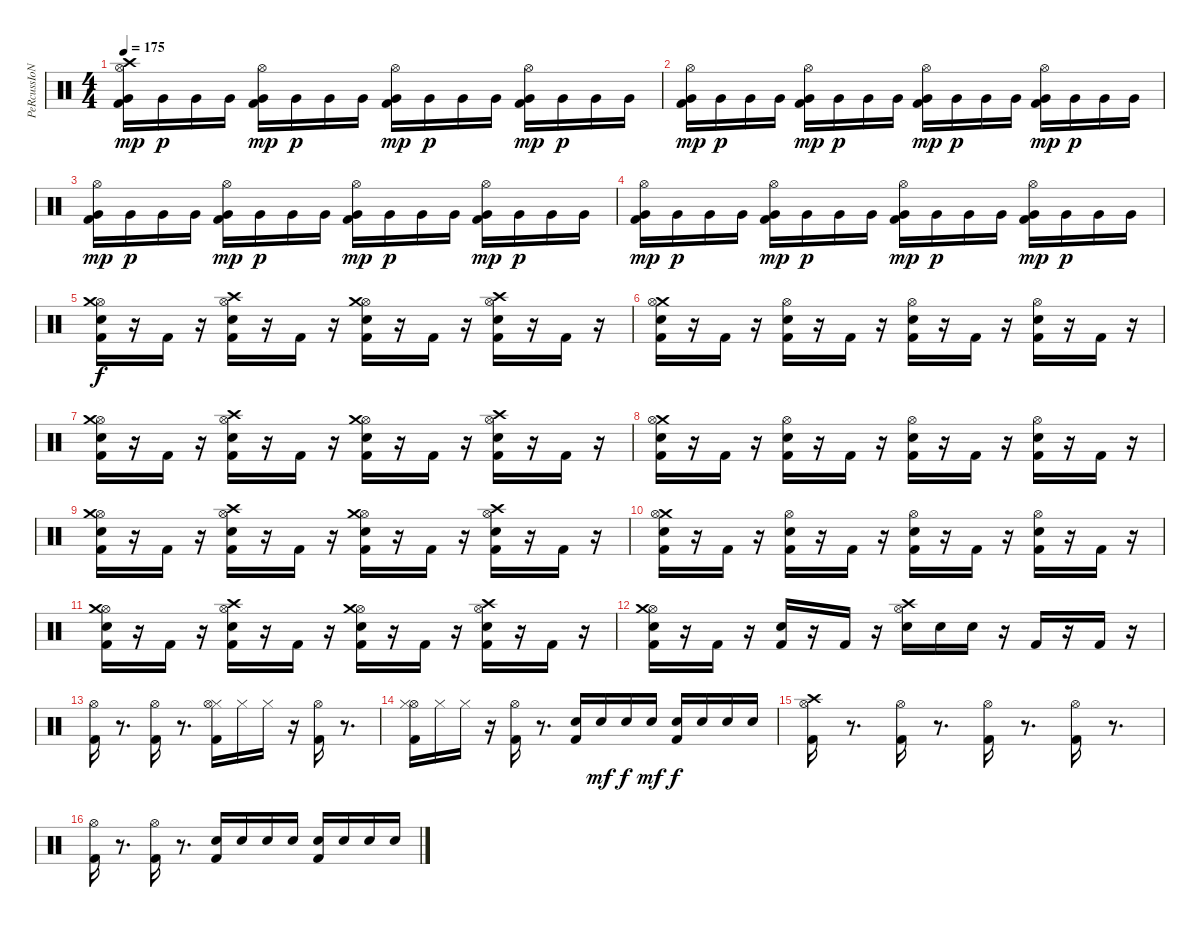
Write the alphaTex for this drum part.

\track ("PeRcussIoNs" "PeRcussIoN") {instrument percussion}
\staff {score}
\articulation defaults
\ts (4 4)
\tempo 175
\clef neutral
\ks c
("Hi-Hat (open)" "Crash high (hit)" "Very Low Tom (hit)" "Kick (hit) 2").16{dy mp} "Very Low Tom (hit)".16{dy p} "Very Low Tom (hit)".16 "Very Low Tom (hit)".16 ("Hi-Hat (open)" "Very Low Tom (hit)" "Kick (hit) 2").16{dy mp} "Very Low Tom (hit)".16{dy p} "Very Low Tom (hit)".16 "Very Low Tom (hit)".16 ("Hi-Hat (open)" "Very Low Tom (hit)" "Kick (hit) 2").16{dy mp} "Very Low Tom (hit)".16{dy p} "Very Low Tom (hit)".16 "Very Low Tom (hit)".16 ("Hi-Hat (open)" "Very Low Tom (hit)" "Kick (hit) 2").16{dy mp} "Very Low Tom (hit)".16{dy p} "Very Low Tom (hit)".16 "Very Low Tom (hit)".16 |
("Hi-Hat (open)" "Very Low Tom (hit)" "Kick (hit) 2").16{dy mp} "Very Low Tom (hit)".16{dy p} "Very Low Tom (hit)".16 "Very Low Tom (hit)".16 ("Hi-Hat (open)" "Very Low Tom (hit)" "Kick (hit) 2").16{dy mp} "Very Low Tom (hit)".16{dy p} "Very Low Tom (hit)".16 "Very Low Tom (hit)".16 ("Hi-Hat (open)" "Very Low Tom (hit)" "Kick (hit) 2").16{dy mp} "Very Low Tom (hit)".16{dy p} "Very Low Tom (hit)".16 "Very Low Tom (hit)".16 ("Hi-Hat (open)" "Very Low Tom (hit)" "Kick (hit) 2").16{dy mp} "Very Low Tom (hit)".16{dy p} "Very Low Tom (hit)".16 "Very Low Tom (hit)".16 |
("Hi-Hat (open)" "Very Low Tom (hit)" "Kick (hit) 2").16{dy mp} "Very Low Tom (hit)".16{dy p} "Very Low Tom (hit)".16 "Very Low Tom (hit)".16 ("Hi-Hat (open)" "Very Low Tom (hit)" "Kick (hit) 2").16{dy mp} "Very Low Tom (hit)".16{dy p} "Very Low Tom (hit)".16 "Very Low Tom (hit)".16 ("Hi-Hat (open)" "Very Low Tom (hit)" "Kick (hit) 2").16{dy mp} "Very Low Tom (hit)".16{dy p} "Very Low Tom (hit)".16 "Very Low Tom (hit)".16 ("Hi-Hat (open)" "Very Low Tom (hit)" "Kick (hit) 2").16{dy mp} "Very Low Tom (hit)".16{dy p} "Very Low Tom (hit)".16 "Very Low Tom (hit)".16 |
("Hi-Hat (open)" "Very Low Tom (hit)" "Kick (hit) 2").16{dy mp} "Very Low Tom (hit)".16{dy p} "Very Low Tom (hit)".16 "Very Low Tom (hit)".16 ("Hi-Hat (open)" "Very Low Tom (hit)" "Kick (hit) 2").16{dy mp} "Very Low Tom (hit)".16{dy p} "Very Low Tom (hit)".16 "Very Low Tom (hit)".16 ("Hi-Hat (open)" "Very Low Tom (hit)" "Kick (hit) 2").16{dy mp} "Very Low Tom (hit)".16{dy p} "Very Low Tom (hit)".16 "Very Low Tom (hit)".16 ("Hi-Hat (open)" "Very Low Tom (hit)" "Kick (hit) 2").16{dy mp} "Very Low Tom (hit)".16{dy p} "Very Low Tom (hit)".16 "Very Low Tom (hit)".16 |
("Hi-Hat (open)" "Electric Snare (hit)" "Kick (hit) 2" "Crash medium (hit)").16{dy f} r.16 "Kick (hit) 2".16 r.16 ("Hi-Hat (open)" "Electric Snare (hit)" "Kick (hit) 2" "Crash high (hit)").16 r.16 "Kick (hit) 2".16 r.16 ("Hi-Hat (open)" "Electric Snare (hit)" "Kick (hit) 2" "Crash medium (hit)").16 r.16 "Kick (hit) 2".16 r.16 ("Hi-Hat (open)" "Electric Snare (hit)" "Kick (hit) 2" "Crash high (hit)").16 r.16 "Kick (hit) 2".16 r.16 |
("Crash medium (hit)" "Hi-Hat (open)" "Electric Snare (hit)" "Kick (hit) 2").16 r.16 "Kick (hit) 2".16 r.16 ("Hi-Hat (open)" "Electric Snare (hit)" "Kick (hit) 2").16 r.16 "Kick (hit) 2".16 r.16 ("Hi-Hat (open)" "Electric Snare (hit)" "Kick (hit) 2").16 r.16 "Kick (hit) 2".16 r.16 ("Hi-Hat (open)" "Electric Snare (hit)" "Kick (hit) 2").16 r.16 "Kick (hit) 2".16 r.16 |
("Hi-Hat (open)" "Electric Snare (hit)" "Kick (hit) 2" "Crash medium (hit)").16 r.16 "Kick (hit) 2".16 r.16 ("Hi-Hat (open)" "Electric Snare (hit)" "Kick (hit) 2" "Crash high (hit)").16 r.16 "Kick (hit) 2".16 r.16 ("Hi-Hat (open)" "Electric Snare (hit)" "Kick (hit) 2" "Crash medium (hit)").16 r.16 "Kick (hit) 2".16 r.16 ("Hi-Hat (open)" "Electric Snare (hit)" "Kick (hit) 2" "Crash high (hit)").16 r.16 "Kick (hit) 2".16 r.16 |
("Crash medium (hit)" "Hi-Hat (open)" "Electric Snare (hit)" "Kick (hit) 2").16 r.16 "Kick (hit) 2".16 r.16 ("Hi-Hat (open)" "Electric Snare (hit)" "Kick (hit) 2").16 r.16 "Kick (hit) 2".16 r.16 ("Hi-Hat (open)" "Electric Snare (hit)" "Kick (hit) 2").16 r.16 "Kick (hit) 2".16 r.16 ("Hi-Hat (open)" "Electric Snare (hit)" "Kick (hit) 2").16 r.16 "Kick (hit) 2".16 r.16 |
("Hi-Hat (open)" "Electric Snare (hit)" "Kick (hit) 2" "Crash medium (hit)").16 r.16 "Kick (hit) 2".16 r.16 ("Hi-Hat (open)" "Electric Snare (hit)" "Kick (hit) 2" "Crash high (hit)").16 r.16 "Kick (hit) 2".16 r.16 ("Hi-Hat (open)" "Electric Snare (hit)" "Kick (hit) 2" "Crash medium (hit)").16 r.16 "Kick (hit) 2".16 r.16 ("Hi-Hat (open)" "Electric Snare (hit)" "Kick (hit) 2" "Crash high (hit)").16 r.16 "Kick (hit) 2".16 r.16 |
("Crash medium (hit)" "Hi-Hat (open)" "Electric Snare (hit)" "Kick (hit) 2").16 r.16 "Kick (hit) 2".16 r.16 ("Hi-Hat (open)" "Electric Snare (hit)" "Kick (hit) 2").16 r.16 "Kick (hit) 2".16 r.16 ("Hi-Hat (open)" "Electric Snare (hit)" "Kick (hit) 2").16 r.16 "Kick (hit) 2".16 r.16 ("Hi-Hat (open)" "Electric Snare (hit)" "Kick (hit) 2").16 r.16 "Kick (hit) 2".16 r.16 |
("Hi-Hat (open)" "Electric Snare (hit)" "Kick (hit) 2" "Crash medium (hit)").16 r.16 "Kick (hit) 2".16 r.16 ("Hi-Hat (open)" "Electric Snare (hit)" "Kick (hit) 2" "Crash high (hit)").16 r.16 "Kick (hit) 2".16 r.16 ("Hi-Hat (open)" "Electric Snare (hit)" "Kick (hit) 2" "Crash medium (hit)").16 r.16 "Kick (hit) 2".16 r.16 ("Hi-Hat (open)" "Electric Snare (hit)" "Kick (hit) 2" "Crash high (hit)").16 r.16 "Kick (hit) 2".16 r.16 |
("Hi-Hat (open)" "Crash medium (hit)" "Electric Snare (hit)" "Kick (hit) 2").16 r.16 "Kick (hit) 2".16 r.16 ("Electric Snare (hit)" "Kick (hit) 2").16 r.16 "Kick (hit) 2".16 r.16 ("Crash high (hit)" "Hi-Hat (open)" "Electric Snare (hit)").16 "Electric Snare (hit)".16 "Electric Snare (hit)".16 r.16 "Kick (hit) 2".16 r.16 "Kick (hit) 2".16 r.16 |
("Hi-Hat (open)" "Kick (hit) 2").16 r.8{d} ("Hi-Hat (open)" "Kick (hit) 2").16 r.8{d} ("Hi-Hat (closed)" "Hi-Hat (open)" "Kick (hit) 2").16 "Hi-Hat (closed)".16 "Hi-Hat (closed)".16 r.16 ("Hi-Hat (open)" "Kick (hit) 2").16 r.8{d} |
("Hi-Hat (open)" "Hi-Hat (closed)" "Kick (hit) 2").16 "Hi-Hat (closed)".16 "Hi-Hat (closed)".16 r.16 ("Hi-Hat (open)" "Kick (hit) 2").16 r.8{d} ("Kick (hit) 2" "Electric Snare (hit)").16 "Electric Snare (hit)".16{dy mf} "Electric Snare (hit)".16{dy f} "Electric Snare (hit)".16{dy mf} ("Kick (hit) 2" "Electric Snare (hit)").16{dy f} "Electric Snare (hit)".16 "Electric Snare (hit)".16 "Electric Snare (hit)".16 |
("Hi-Hat (open)" "Kick (hit) 2" "Crash high (hit)").16 r.8{d} ("Kick (hit) 2" "Hi-Hat (open)").16 r.8{d} ("Kick (hit) 2" "Hi-Hat (open)").16 r.8{d} ("Kick (hit) 2" "Hi-Hat (open)").16 r.8{d} |
("Kick (hit) 2" "Hi-Hat (open)").16 r.8{d} ("Kick (hit) 2" "Hi-Hat (open)").16 r.8{d} ("Electric Snare (hit)" "Kick (hit) 2").16 "Electric Snare (hit)".16 "Electric Snare (hit)".16 "Electric Snare (hit)".16 ("Electric Snare (hit)" "Kick (hit) 2").16 "Electric Snare (hit)".16 "Electric Snare (hit)".16 "Electric Snare (hit)".16
